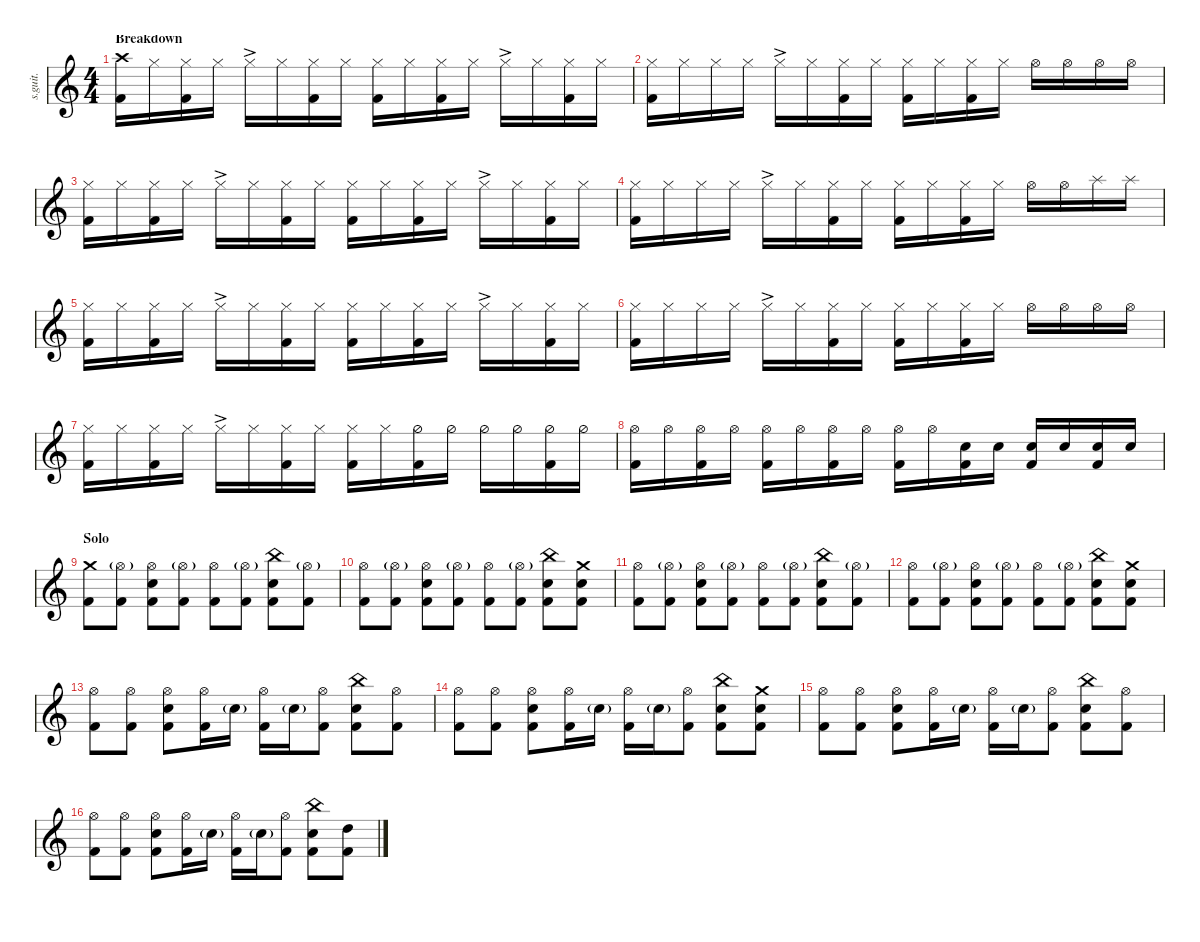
\defaultSystemsLayout 4
\hideDynamics
\bracketExtendMode nobrackets
\track ("Feargal Lawler (Drums)" "s.guit.") {instrument percussion}
\staff {score}
\articulation defaults
\ts (4 4)
\section ("" "Breakdown")
\tempo (82 hide)
\clef g2
\ks c
("Crash high (hit)" "Kick (hit) 2").16{lyrics (0 "") lyrics (1 "") lyrics (2 "") lyrics (3 "") lyrics (4 "") dy ff} "Hi-Hat (closed)".16{lyrics (0 "") lyrics (1 "") lyrics (2 "") lyrics (3 "") lyrics (4 "")} ("Hi-Hat (closed)" "Kick (hit) 2").16{lyrics (0 "") lyrics (1 "") lyrics (2 "") lyrics (3 "") lyrics (4 "")} "Hi-Hat (closed)".16{lyrics (0 "") lyrics (1 "") lyrics (2 "") lyrics (3 "") lyrics (4 "")} "Hi-Hat (closed)"{ac}.16{lyrics (0 "") lyrics (1 "") lyrics (2 "") lyrics (3 "") lyrics (4 "")} "Hi-Hat (closed)".16{lyrics (0 "") lyrics (1 "") lyrics (2 "") lyrics (3 "") lyrics (4 "")} ("Hi-Hat (closed)" "Kick (hit) 2").16{lyrics (0 "") lyrics (1 "") lyrics (2 "") lyrics (3 "") lyrics (4 "")} "Hi-Hat (closed)".16{lyrics (0 "") lyrics (1 "") lyrics (2 "") lyrics (3 "") lyrics (4 "")} ("Hi-Hat (closed)" "Kick (hit) 2").16{lyrics (0 "") lyrics (1 "") lyrics (2 "") lyrics (3 "") lyrics (4 "")} "Hi-Hat (closed)".16{lyrics (0 "") lyrics (1 "") lyrics (2 "") lyrics (3 "") lyrics (4 "")} ("Hi-Hat (closed)" "Kick (hit) 2").16{lyrics (0 "") lyrics (1 "") lyrics (2 "") lyrics (3 "") lyrics (4 "")} "Hi-Hat (closed)".16{lyrics (0 "") lyrics (1 "") lyrics (2 "") lyrics (3 "") lyrics (4 "")} "Hi-Hat (closed)"{ac}.16{lyrics (0 "") lyrics (1 "") lyrics (2 "") lyrics (3 "") lyrics (4 "")} "Hi-Hat (closed)".16{lyrics (0 "") lyrics (1 "") lyrics (2 "") lyrics (3 "") lyrics (4 "")} ("Hi-Hat (closed)" "Kick (hit) 2").16{lyrics (0 "") lyrics (1 "") lyrics (2 "") lyrics (3 "") lyrics (4 "")} "Hi-Hat (closed)".16{lyrics (0 "") lyrics (1 "") lyrics (2 "") lyrics (3 "") lyrics (4 "")} |
("Hi-Hat (closed)" "Kick (hit) 2").16{lyrics (0 "") lyrics (1 "") lyrics (2 "") lyrics (3 "") lyrics (4 "")} "Hi-Hat (closed)".16{lyrics (0 "") lyrics (1 "") lyrics (2 "") lyrics (3 "") lyrics (4 "")} "Hi-Hat (closed)".16{lyrics (0 "") lyrics (1 "") lyrics (2 "") lyrics (3 "") lyrics (4 "")} "Hi-Hat (closed)".16{lyrics (0 "") lyrics (1 "") lyrics (2 "") lyrics (3 "") lyrics (4 "")} "Hi-Hat (closed)"{ac}.16{lyrics (0 "") lyrics (1 "") lyrics (2 "") lyrics (3 "") lyrics (4 "")} "Hi-Hat (closed)".16{lyrics (0 "") lyrics (1 "") lyrics (2 "") lyrics (3 "") lyrics (4 "")} ("Hi-Hat (closed)" "Kick (hit) 2").16{lyrics (0 "") lyrics (1 "") lyrics (2 "") lyrics (3 "") lyrics (4 "")} "Hi-Hat (closed)".16{lyrics (0 "") lyrics (1 "") lyrics (2 "") lyrics (3 "") lyrics (4 "")} ("Hi-Hat (closed)" "Kick (hit) 2").16{lyrics (0 "") lyrics (1 "") lyrics (2 "") lyrics (3 "") lyrics (4 "")} "Hi-Hat (closed)".16{lyrics (0 "") lyrics (1 "") lyrics (2 "") lyrics (3 "") lyrics (4 "")} ("Hi-Hat (closed)" "Kick (hit) 2").16{lyrics (0 "") lyrics (1 "") lyrics (2 "") lyrics (3 "") lyrics (4 "")} "Hi-Hat (closed)".16{lyrics (0 "") lyrics (1 "") lyrics (2 "") lyrics (3 "") lyrics (4 "")} "Hi-Hat (open)".16{lyrics (0 "") lyrics (1 "") lyrics (2 "") lyrics (3 "") lyrics (4 "")} "Hi-Hat (open)".16{lyrics (0 "") lyrics (1 "") lyrics (2 "") lyrics (3 "") lyrics (4 "")} "Hi-Hat (open)".16{lyrics (0 "") lyrics (1 "") lyrics (2 "") lyrics (3 "") lyrics (4 "")} "Hi-Hat (open)".16{lyrics (0 "") lyrics (1 "") lyrics (2 "") lyrics (3 "") lyrics (4 "")} |
("Hi-Hat (closed)" "Kick (hit) 2").16{lyrics (0 "") lyrics (1 "") lyrics (2 "") lyrics (3 "") lyrics (4 "")} "Hi-Hat (closed)".16{lyrics (0 "") lyrics (1 "") lyrics (2 "") lyrics (3 "") lyrics (4 "")} ("Hi-Hat (closed)" "Kick (hit) 2").16{lyrics (0 "") lyrics (1 "") lyrics (2 "") lyrics (3 "") lyrics (4 "")} "Hi-Hat (closed)".16{lyrics (0 "") lyrics (1 "") lyrics (2 "") lyrics (3 "") lyrics (4 "")} "Hi-Hat (closed)"{ac}.16{lyrics (0 "") lyrics (1 "") lyrics (2 "") lyrics (3 "") lyrics (4 "")} "Hi-Hat (closed)".16{lyrics (0 "") lyrics (1 "") lyrics (2 "") lyrics (3 "") lyrics (4 "")} ("Hi-Hat (closed)" "Kick (hit) 2").16{lyrics (0 "") lyrics (1 "") lyrics (2 "") lyrics (3 "") lyrics (4 "")} "Hi-Hat (closed)".16{lyrics (0 "") lyrics (1 "") lyrics (2 "") lyrics (3 "") lyrics (4 "")} ("Hi-Hat (closed)" "Kick (hit) 2").16{lyrics (0 "") lyrics (1 "") lyrics (2 "") lyrics (3 "") lyrics (4 "")} "Hi-Hat (closed)".16{lyrics (0 "") lyrics (1 "") lyrics (2 "") lyrics (3 "") lyrics (4 "")} ("Hi-Hat (closed)" "Kick (hit) 2").16{lyrics (0 "") lyrics (1 "") lyrics (2 "") lyrics (3 "") lyrics (4 "")} "Hi-Hat (closed)".16{lyrics (0 "") lyrics (1 "") lyrics (2 "") lyrics (3 "") lyrics (4 "")} "Hi-Hat (closed)"{ac}.16{lyrics (0 "") lyrics (1 "") lyrics (2 "") lyrics (3 "") lyrics (4 "")} "Hi-Hat (closed)".16{lyrics (0 "") lyrics (1 "") lyrics (2 "") lyrics (3 "") lyrics (4 "")} ("Hi-Hat (closed)" "Kick (hit) 2").16{lyrics (0 "") lyrics (1 "") lyrics (2 "") lyrics (3 "") lyrics (4 "")} "Hi-Hat (closed)".16{lyrics (0 "") lyrics (1 "") lyrics (2 "") lyrics (3 "") lyrics (4 "")} |
("Hi-Hat (closed)" "Kick (hit) 2").16{lyrics (0 "") lyrics (1 "") lyrics (2 "") lyrics (3 "") lyrics (4 "")} "Hi-Hat (closed)".16{lyrics (0 "") lyrics (1 "") lyrics (2 "") lyrics (3 "") lyrics (4 "")} "Hi-Hat (closed)".16{lyrics (0 "") lyrics (1 "") lyrics (2 "") lyrics (3 "") lyrics (4 "")} "Hi-Hat (closed)".16{lyrics (0 "") lyrics (1 "") lyrics (2 "") lyrics (3 "") lyrics (4 "")} "Hi-Hat (closed)"{ac}.16{lyrics (0 "") lyrics (1 "") lyrics (2 "") lyrics (3 "") lyrics (4 "")} "Hi-Hat (closed)".16{lyrics (0 "") lyrics (1 "") lyrics (2 "") lyrics (3 "") lyrics (4 "")} ("Hi-Hat (closed)" "Kick (hit) 2").16{lyrics (0 "") lyrics (1 "") lyrics (2 "") lyrics (3 "") lyrics (4 "")} "Hi-Hat (closed)".16{lyrics (0 "") lyrics (1 "") lyrics (2 "") lyrics (3 "") lyrics (4 "")} ("Hi-Hat (closed)" "Kick (hit) 2").16{lyrics (0 "") lyrics (1 "") lyrics (2 "") lyrics (3 "") lyrics (4 "")} "Hi-Hat (closed)".16{lyrics (0 "") lyrics (1 "") lyrics (2 "") lyrics (3 "") lyrics (4 "")} ("Hi-Hat (closed)" "Kick (hit) 2").16{lyrics (0 "") lyrics (1 "") lyrics (2 "") lyrics (3 "") lyrics (4 "")} "Hi-Hat (closed)".16{lyrics (0 "") lyrics (1 "") lyrics (2 "") lyrics (3 "") lyrics (4 "")} "Hi-Hat (open)".16{lyrics (0 "") lyrics (1 "") lyrics (2 "") lyrics (3 "") lyrics (4 "")} "Hi-Hat (open)".16{lyrics (0 "") lyrics (1 "") lyrics (2 "") lyrics (3 "") lyrics (4 "")} "Splash (hit)".16{lyrics (0 "") lyrics (1 "") lyrics (2 "") lyrics (3 "") lyrics (4 "")} "Splash (hit)".16{lyrics (0 "") lyrics (1 "") lyrics (2 "") lyrics (3 "") lyrics (4 "")} |
("Hi-Hat (closed)" "Kick (hit) 2").16{lyrics (0 "") lyrics (1 "") lyrics (2 "") lyrics (3 "") lyrics (4 "")} "Hi-Hat (closed)".16{lyrics (0 "") lyrics (1 "") lyrics (2 "") lyrics (3 "") lyrics (4 "")} ("Hi-Hat (closed)" "Kick (hit) 2").16{lyrics (0 "") lyrics (1 "") lyrics (2 "") lyrics (3 "") lyrics (4 "")} "Hi-Hat (closed)".16{lyrics (0 "") lyrics (1 "") lyrics (2 "") lyrics (3 "") lyrics (4 "")} "Hi-Hat (closed)"{ac}.16{lyrics (0 "") lyrics (1 "") lyrics (2 "") lyrics (3 "") lyrics (4 "")} "Hi-Hat (closed)".16{lyrics (0 "") lyrics (1 "") lyrics (2 "") lyrics (3 "") lyrics (4 "")} ("Hi-Hat (closed)" "Kick (hit) 2").16{lyrics (0 "") lyrics (1 "") lyrics (2 "") lyrics (3 "") lyrics (4 "")} "Hi-Hat (closed)".16{lyrics (0 "") lyrics (1 "") lyrics (2 "") lyrics (3 "") lyrics (4 "")} ("Hi-Hat (closed)" "Kick (hit) 2").16{lyrics (0 "") lyrics (1 "") lyrics (2 "") lyrics (3 "") lyrics (4 "")} "Hi-Hat (closed)".16{lyrics (0 "") lyrics (1 "") lyrics (2 "") lyrics (3 "") lyrics (4 "")} ("Hi-Hat (closed)" "Kick (hit) 2").16{lyrics (0 "") lyrics (1 "") lyrics (2 "") lyrics (3 "") lyrics (4 "")} "Hi-Hat (closed)".16{lyrics (0 "") lyrics (1 "") lyrics (2 "") lyrics (3 "") lyrics (4 "")} "Hi-Hat (closed)"{ac}.16{lyrics (0 "") lyrics (1 "") lyrics (2 "") lyrics (3 "") lyrics (4 "")} "Hi-Hat (closed)".16{lyrics (0 "") lyrics (1 "") lyrics (2 "") lyrics (3 "") lyrics (4 "")} ("Hi-Hat (closed)" "Kick (hit) 2").16{lyrics (0 "") lyrics (1 "") lyrics (2 "") lyrics (3 "") lyrics (4 "")} "Hi-Hat (closed)".16{lyrics (0 "") lyrics (1 "") lyrics (2 "") lyrics (3 "") lyrics (4 "")} |
("Hi-Hat (closed)" "Kick (hit) 2").16{lyrics (0 "") lyrics (1 "") lyrics (2 "") lyrics (3 "") lyrics (4 "")} "Hi-Hat (closed)".16{lyrics (0 "") lyrics (1 "") lyrics (2 "") lyrics (3 "") lyrics (4 "")} "Hi-Hat (closed)".16{lyrics (0 "") lyrics (1 "") lyrics (2 "") lyrics (3 "") lyrics (4 "")} "Hi-Hat (closed)".16{lyrics (0 "") lyrics (1 "") lyrics (2 "") lyrics (3 "") lyrics (4 "")} "Hi-Hat (closed)"{ac}.16{lyrics (0 "") lyrics (1 "") lyrics (2 "") lyrics (3 "") lyrics (4 "")} "Hi-Hat (closed)".16{lyrics (0 "") lyrics (1 "") lyrics (2 "") lyrics (3 "") lyrics (4 "")} ("Hi-Hat (closed)" "Kick (hit) 2").16{lyrics (0 "") lyrics (1 "") lyrics (2 "") lyrics (3 "") lyrics (4 "")} "Hi-Hat (closed)".16{lyrics (0 "") lyrics (1 "") lyrics (2 "") lyrics (3 "") lyrics (4 "")} ("Hi-Hat (closed)" "Kick (hit) 2").16{lyrics (0 "") lyrics (1 "") lyrics (2 "") lyrics (3 "") lyrics (4 "")} "Hi-Hat (closed)".16{lyrics (0 "") lyrics (1 "") lyrics (2 "") lyrics (3 "") lyrics (4 "")} ("Hi-Hat (closed)" "Kick (hit) 2").16{lyrics (0 "") lyrics (1 "") lyrics (2 "") lyrics (3 "") lyrics (4 "")} "Hi-Hat (closed)".16{lyrics (0 "") lyrics (1 "") lyrics (2 "") lyrics (3 "") lyrics (4 "")} "Hi-Hat (open)".16{lyrics (0 "") lyrics (1 "") lyrics (2 "") lyrics (3 "") lyrics (4 "")} "Hi-Hat (open)".16{lyrics (0 "") lyrics (1 "") lyrics (2 "") lyrics (3 "") lyrics (4 "")} "Hi-Hat (open)".16{lyrics (0 "") lyrics (1 "") lyrics (2 "") lyrics (3 "") lyrics (4 "")} "Hi-Hat (open)".16{lyrics (0 "") lyrics (1 "") lyrics (2 "") lyrics (3 "") lyrics (4 "")} |
("Hi-Hat (closed)" "Kick (hit) 2").16{lyrics (0 "") lyrics (1 "") lyrics (2 "") lyrics (3 "") lyrics (4 "")} "Hi-Hat (closed)".16{lyrics (0 "") lyrics (1 "") lyrics (2 "") lyrics (3 "") lyrics (4 "")} ("Hi-Hat (closed)" "Kick (hit) 2").16{lyrics (0 "") lyrics (1 "") lyrics (2 "") lyrics (3 "") lyrics (4 "")} "Hi-Hat (closed)".16{lyrics (0 "") lyrics (1 "") lyrics (2 "") lyrics (3 "") lyrics (4 "")} "Hi-Hat (closed)"{ac}.16{lyrics (0 "") lyrics (1 "") lyrics (2 "") lyrics (3 "") lyrics (4 "")} "Hi-Hat (closed)".16{lyrics (0 "") lyrics (1 "") lyrics (2 "") lyrics (3 "") lyrics (4 "")} ("Hi-Hat (closed)" "Kick (hit) 2").16{lyrics (0 "") lyrics (1 "") lyrics (2 "") lyrics (3 "") lyrics (4 "")} "Hi-Hat (closed)".16{lyrics (0 "") lyrics (1 "") lyrics (2 "") lyrics (3 "") lyrics (4 "")} ("Hi-Hat (closed)" "Kick (hit) 2").16{lyrics (0 "") lyrics (1 "") lyrics (2 "") lyrics (3 "") lyrics (4 "")} "Hi-Hat (closed)".16{lyrics (0 "") lyrics (1 "") lyrics (2 "") lyrics (3 "") lyrics (4 "")} ("Hi-Hat (half)" "Kick (hit) 2").16{lyrics (0 "") lyrics (1 "") lyrics (2 "") lyrics (3 "") lyrics (4 "")} "Hi-Hat (half)".16{lyrics (0 "") lyrics (1 "") lyrics (2 "") lyrics (3 "") lyrics (4 "")} "Hi-Hat (half)".16{lyrics (0 "") lyrics (1 "") lyrics (2 "") lyrics (3 "") lyrics (4 "")} "Hi-Hat (half)".16{lyrics (0 "") lyrics (1 "") lyrics (2 "") lyrics (3 "") lyrics (4 "")} ("Hi-Hat (half)" "Kick (hit) 2").16{lyrics (0 "") lyrics (1 "") lyrics (2 "") lyrics (3 "") lyrics (4 "")} "Hi-Hat (half)".16{lyrics (0 "") lyrics (1 "") lyrics (2 "") lyrics (3 "") lyrics (4 "")} |
("Hi-Hat (open)" "Kick (hit) 2").16{lyrics (0 "") lyrics (1 "") lyrics (2 "") lyrics (3 "") lyrics (4 "")} "Hi-Hat (open)".16{lyrics (0 "") lyrics (1 "") lyrics (2 "") lyrics (3 "") lyrics (4 "")} ("Hi-Hat (open)" "Kick (hit) 2").16{lyrics (0 "") lyrics (1 "") lyrics (2 "") lyrics (3 "") lyrics (4 "")} "Hi-Hat (open)".16{lyrics (0 "") lyrics (1 "") lyrics (2 "") lyrics (3 "") lyrics (4 "")} ("Hi-Hat (open)" "Kick (hit) 2").16{lyrics (0 "") lyrics (1 "") lyrics (2 "") lyrics (3 "") lyrics (4 "")} "Hi-Hat (open)".16{lyrics (0 "") lyrics (1 "") lyrics (2 "") lyrics (3 "") lyrics (4 "")} ("Hi-Hat (open)" "Kick (hit) 2").16{lyrics (0 "") lyrics (1 "") lyrics (2 "") lyrics (3 "") lyrics (4 "")} "Hi-Hat (open)".16{lyrics (0 "") lyrics (1 "") lyrics (2 "") lyrics (3 "") lyrics (4 "")} ("Hi-Hat (open)" "Kick (hit) 2").16{lyrics (0 "") lyrics (1 "") lyrics (2 "") lyrics (3 "") lyrics (4 "")} "Hi-Hat (open)".16{lyrics (0 "") lyrics (1 "") lyrics (2 "") lyrics (3 "") lyrics (4 "")} ("Snare (hit) 2" "Kick (hit) 2").16{lyrics (0 "") lyrics (1 "") lyrics (2 "") lyrics (3 "") lyrics (4 "")} "Snare (hit) 2".16{lyrics (0 "") lyrics (1 "") lyrics (2 "") lyrics (3 "") lyrics (4 "")} ("Snare (hit) 2" "Kick (hit) 2").16{lyrics (0 "") lyrics (1 "") lyrics (2 "") lyrics (3 "") lyrics (4 "")} "Snare (hit) 2".16{lyrics (0 "") lyrics (1 "") lyrics (2 "") lyrics (3 "") lyrics (4 "")} ("Snare (hit) 2" "Kick (hit) 2").16{lyrics (0 "") lyrics (1 "") lyrics (2 "") lyrics (3 "") lyrics (4 "")} "Snare (hit) 2".16{lyrics (0 "") lyrics (1 "") lyrics (2 "") lyrics (3 "") lyrics (4 "")} |
\section ("" "Solo")
("Crash medium (hit)" "Kick (hit) 2").8{lyrics (0 "") lyrics (1 "") lyrics (2 "") lyrics (3 "") lyrics (4 "")} ("Hi-Hat (open)"{g} "Kick (hit) 2").8{lyrics (0 "") lyrics (1 "") lyrics (2 "") lyrics (3 "") lyrics (4 "")} ("Hi-Hat (open)" "Snare (hit) 2" "Kick (hit) 2").8{lyrics (0 "") lyrics (1 "") lyrics (2 "") lyrics (3 "") lyrics (4 "")} ("Hi-Hat (open)"{g} "Kick (hit) 2").8{lyrics (0 "") lyrics (1 "") lyrics (2 "") lyrics (3 "") lyrics (4 "")} ("Hi-Hat (open)" "Kick (hit) 2").8{lyrics (0 "") lyrics (1 "") lyrics (2 "") lyrics (3 "") lyrics (4 "")} ("Hi-Hat (open)"{g} "Kick (hit) 2").8{lyrics (0 "") lyrics (1 "") lyrics (2 "") lyrics (3 "") lyrics (4 "")} ("China (hit)" "Snare (hit) 2" "Kick (hit) 2").8{lyrics (0 "") lyrics (1 "") lyrics (2 "") lyrics (3 "") lyrics (4 "")} ("Hi-Hat (open)"{g} "Kick (hit) 2").8{lyrics (0 "") lyrics (1 "") lyrics (2 "") lyrics (3 "") lyrics (4 "")} |
("Hi-Hat (open)" "Kick (hit) 2").8{lyrics (0 "") lyrics (1 "") lyrics (2 "") lyrics (3 "") lyrics (4 "")} ("Hi-Hat (open)"{g} "Kick (hit) 2").8{lyrics (0 "") lyrics (1 "") lyrics (2 "") lyrics (3 "") lyrics (4 "")} ("Hi-Hat (open)" "Snare (hit) 2" "Kick (hit) 2").8{lyrics (0 "") lyrics (1 "") lyrics (2 "") lyrics (3 "") lyrics (4 "")} ("Hi-Hat (open)"{g} "Kick (hit) 2").8{lyrics (0 "") lyrics (1 "") lyrics (2 "") lyrics (3 "") lyrics (4 "")} ("Hi-Hat (open)" "Kick (hit) 2").8{lyrics (0 "") lyrics (1 "") lyrics (2 "") lyrics (3 "") lyrics (4 "")} ("Hi-Hat (open)"{g} "Kick (hit) 2").8{lyrics (0 "") lyrics (1 "") lyrics (2 "") lyrics (3 "") lyrics (4 "")} ("China (hit)" "Snare (hit) 2" "Kick (hit) 2").8{lyrics (0 "") lyrics (1 "") lyrics (2 "") lyrics (3 "") lyrics (4 "")} ("Crash medium (hit)" "Snare (hit) 2" "Kick (hit) 2").8{lyrics (0 "") lyrics (1 "") lyrics (2 "") lyrics (3 "") lyrics (4 "")} |
("Hi-Hat (open)" "Kick (hit) 2").8{lyrics (0 "") lyrics (1 "") lyrics (2 "") lyrics (3 "") lyrics (4 "")} ("Hi-Hat (open)"{g} "Kick (hit) 2").8{lyrics (0 "") lyrics (1 "") lyrics (2 "") lyrics (3 "") lyrics (4 "")} ("Hi-Hat (open)" "Snare (hit) 2" "Kick (hit) 2").8{lyrics (0 "") lyrics (1 "") lyrics (2 "") lyrics (3 "") lyrics (4 "")} ("Hi-Hat (open)"{g} "Kick (hit) 2").8{lyrics (0 "") lyrics (1 "") lyrics (2 "") lyrics (3 "") lyrics (4 "")} ("Hi-Hat (open)" "Kick (hit) 2").8{lyrics (0 "") lyrics (1 "") lyrics (2 "") lyrics (3 "") lyrics (4 "")} ("Hi-Hat (open)"{g} "Kick (hit) 2").8{lyrics (0 "") lyrics (1 "") lyrics (2 "") lyrics (3 "") lyrics (4 "")} ("China (hit)" "Snare (hit) 2" "Kick (hit) 2").8{lyrics (0 "") lyrics (1 "") lyrics (2 "") lyrics (3 "") lyrics (4 "")} ("Hi-Hat (open)"{g} "Kick (hit) 2").8{lyrics (0 "") lyrics (1 "") lyrics (2 "") lyrics (3 "") lyrics (4 "")} |
("Hi-Hat (open)" "Kick (hit) 2").8{lyrics (0 "") lyrics (1 "") lyrics (2 "") lyrics (3 "") lyrics (4 "")} ("Hi-Hat (open)"{g} "Kick (hit) 2").8{lyrics (0 "") lyrics (1 "") lyrics (2 "") lyrics (3 "") lyrics (4 "")} ("Hi-Hat (open)" "Snare (hit) 2" "Kick (hit) 2").8{lyrics (0 "") lyrics (1 "") lyrics (2 "") lyrics (3 "") lyrics (4 "")} ("Hi-Hat (open)"{g} "Kick (hit) 2").8{lyrics (0 "") lyrics (1 "") lyrics (2 "") lyrics (3 "") lyrics (4 "")} ("Hi-Hat (open)" "Kick (hit) 2").8{lyrics (0 "") lyrics (1 "") lyrics (2 "") lyrics (3 "") lyrics (4 "")} ("Hi-Hat (open)"{g} "Kick (hit) 2").8{lyrics (0 "") lyrics (1 "") lyrics (2 "") lyrics (3 "") lyrics (4 "")} ("China (hit)" "Snare (hit) 2" "Kick (hit) 2").8{lyrics (0 "") lyrics (1 "") lyrics (2 "") lyrics (3 "") lyrics (4 "")} ("Crash medium (hit)" "Snare (hit) 2" "Kick (hit) 2").8{lyrics (0 "") lyrics (1 "") lyrics (2 "") lyrics (3 "") lyrics (4 "")} |
("Hi-Hat (open)" "Kick (hit) 2").8{lyrics (0 "") lyrics (1 "") lyrics (2 "") lyrics (3 "") lyrics (4 "")} ("Hi-Hat (open)" "Kick (hit) 2").8{lyrics (0 "") lyrics (1 "") lyrics (2 "") lyrics (3 "") lyrics (4 "")} ("Hi-Hat (open)" "Snare (hit) 2" "Kick (hit) 2").8{lyrics (0 "") lyrics (1 "") lyrics (2 "") lyrics (3 "") lyrics (4 "")} ("Hi-Hat (open)" "Kick (hit) 2").16{lyrics (0 "") lyrics (1 "") lyrics (2 "") lyrics (3 "") lyrics (4 "")} "Snare (hit) 2"{g}.16{lyrics (0 "") lyrics (1 "") lyrics (2 "") lyrics (3 "") lyrics (4 "")} ("Hi-Hat (open)" "Kick (hit) 2").16{lyrics (0 "") lyrics (1 "") lyrics (2 "") lyrics (3 "") lyrics (4 "")} "Snare (hit) 2"{g}.16{lyrics (0 "") lyrics (1 "") lyrics (2 "") lyrics (3 "") lyrics (4 "")} ("Hi-Hat (open)" "Kick (hit) 2").8{lyrics (0 "") lyrics (1 "") lyrics (2 "") lyrics (3 "") lyrics (4 "")} ("China (hit)" "Snare (hit) 2" "Kick (hit) 2").8{lyrics (0 "") lyrics (1 "") lyrics (2 "") lyrics (3 "") lyrics (4 "")} ("Hi-Hat (open)" "Kick (hit) 2").8{lyrics (0 "") lyrics (1 "") lyrics (2 "") lyrics (3 "") lyrics (4 "")} |
("Hi-Hat (open)" "Kick (hit) 2").8{lyrics (0 "") lyrics (1 "") lyrics (2 "") lyrics (3 "") lyrics (4 "")} ("Hi-Hat (open)" "Kick (hit) 2").8{lyrics (0 "") lyrics (1 "") lyrics (2 "") lyrics (3 "") lyrics (4 "")} ("Hi-Hat (open)" "Snare (hit) 2" "Kick (hit) 2").8{lyrics (0 "") lyrics (1 "") lyrics (2 "") lyrics (3 "") lyrics (4 "")} ("Hi-Hat (open)" "Kick (hit) 2").16{lyrics (0 "") lyrics (1 "") lyrics (2 "") lyrics (3 "") lyrics (4 "")} "Snare (hit) 2"{g}.16{lyrics (0 "") lyrics (1 "") lyrics (2 "") lyrics (3 "") lyrics (4 "")} ("Hi-Hat (open)" "Kick (hit) 2").16{lyrics (0 "") lyrics (1 "") lyrics (2 "") lyrics (3 "") lyrics (4 "")} "Snare (hit) 2"{g}.16{lyrics (0 "") lyrics (1 "") lyrics (2 "") lyrics (3 "") lyrics (4 "")} ("Hi-Hat (open)" "Kick (hit) 2").8{lyrics (0 "") lyrics (1 "") lyrics (2 "") lyrics (3 "") lyrics (4 "")} ("China (hit)" "Snare (hit) 2" "Kick (hit) 2").8{lyrics (0 "") lyrics (1 "") lyrics (2 "") lyrics (3 "") lyrics (4 "")} ("Crash medium (hit)" "Snare (hit) 2" "Kick (hit) 2").8{lyrics (0 "") lyrics (1 "") lyrics (2 "") lyrics (3 "") lyrics (4 "")} |
("Hi-Hat (open)" "Kick (hit) 2").8{lyrics (0 "") lyrics (1 "") lyrics (2 "") lyrics (3 "") lyrics (4 "")} ("Hi-Hat (open)" "Kick (hit) 2").8{lyrics (0 "") lyrics (1 "") lyrics (2 "") lyrics (3 "") lyrics (4 "")} ("Hi-Hat (open)" "Snare (hit) 2" "Kick (hit) 2").8{lyrics (0 "") lyrics (1 "") lyrics (2 "") lyrics (3 "") lyrics (4 "")} ("Hi-Hat (open)" "Kick (hit) 2").16{lyrics (0 "") lyrics (1 "") lyrics (2 "") lyrics (3 "") lyrics (4 "")} "Snare (hit) 2"{g}.16{lyrics (0 "") lyrics (1 "") lyrics (2 "") lyrics (3 "") lyrics (4 "")} ("Hi-Hat (open)" "Kick (hit) 2").16{lyrics (0 "") lyrics (1 "") lyrics (2 "") lyrics (3 "") lyrics (4 "")} "Snare (hit) 2"{g}.16{lyrics (0 "") lyrics (1 "") lyrics (2 "") lyrics (3 "") lyrics (4 "")} ("Hi-Hat (open)" "Kick (hit) 2").8{lyrics (0 "") lyrics (1 "") lyrics (2 "") lyrics (3 "") lyrics (4 "")} ("China (hit)" "Snare (hit) 2" "Kick (hit) 2").8{lyrics (0 "") lyrics (1 "") lyrics (2 "") lyrics (3 "") lyrics (4 "")} ("Hi-Hat (open)" "Kick (hit) 2").8{lyrics (0 "") lyrics (1 "") lyrics (2 "") lyrics (3 "") lyrics (4 "")} |
("Hi-Hat (open)" "Kick (hit) 2").8{lyrics (0 "") lyrics (1 "") lyrics (2 "") lyrics (3 "") lyrics (4 "")} ("Hi-Hat (open)" "Kick (hit) 2").8{lyrics (0 "") lyrics (1 "") lyrics (2 "") lyrics (3 "") lyrics (4 "")} ("Hi-Hat (open)" "Snare (hit) 2" "Kick (hit) 2").8{lyrics (0 "") lyrics (1 "") lyrics (2 "") lyrics (3 "") lyrics (4 "")} ("Hi-Hat (open)" "Kick (hit) 2").16{lyrics (0 "") lyrics (1 "") lyrics (2 "") lyrics (3 "") lyrics (4 "")} "Snare (hit) 2"{g}.16{lyrics (0 "") lyrics (1 "") lyrics (2 "") lyrics (3 "") lyrics (4 "")} ("Hi-Hat (open)" "Kick (hit) 2").16{lyrics (0 "") lyrics (1 "") lyrics (2 "") lyrics (3 "") lyrics (4 "")} "Snare (hit) 2"{g}.16{lyrics (0 "") lyrics (1 "") lyrics (2 "") lyrics (3 "") lyrics (4 "")} ("Hi-Hat (open)" "Kick (hit) 2").8{lyrics (0 "") lyrics (1 "") lyrics (2 "") lyrics (3 "") lyrics (4 "")} ("China (hit)" "Snare (hit) 2" "Kick (hit) 2").8{lyrics (0 "") lyrics (1 "") lyrics (2 "") lyrics (3 "") lyrics (4 "")} ("Kick (hit) 2" "High Tom (hit)").8{lyrics (0 "") lyrics (1 "") lyrics (2 "") lyrics (3 "") lyrics (4 "")}
